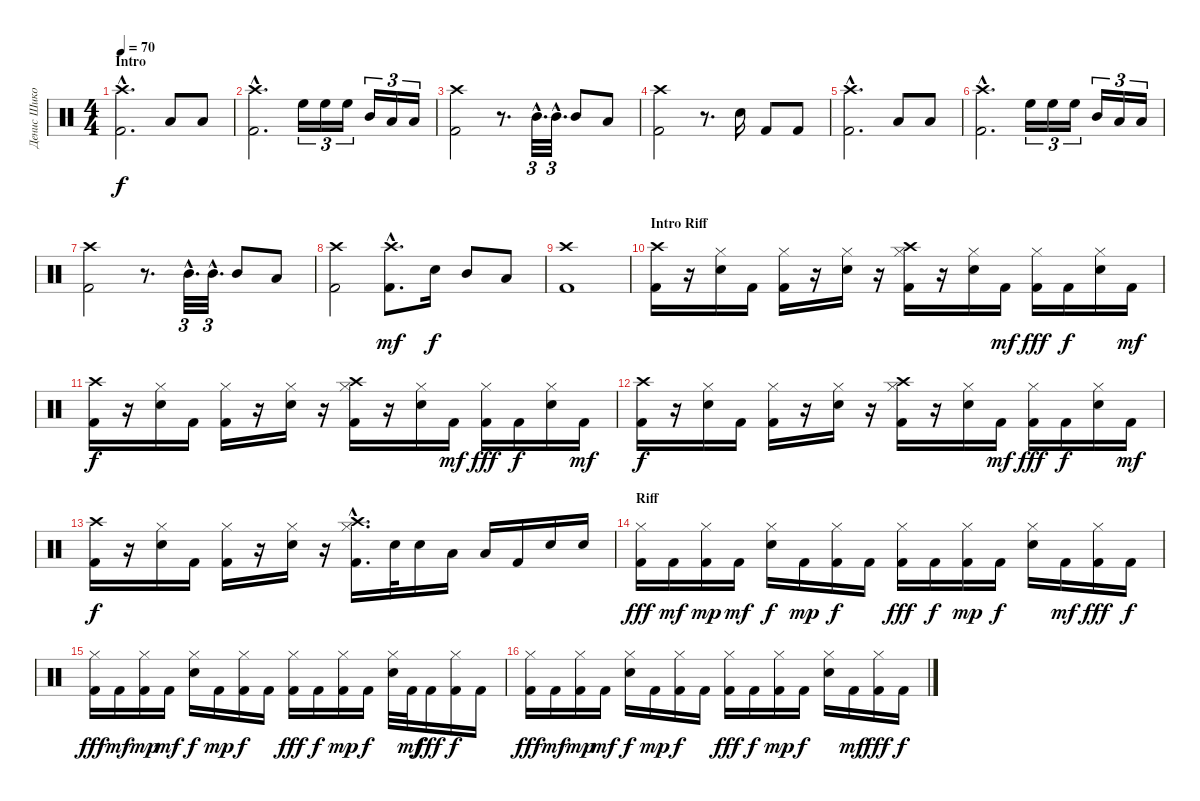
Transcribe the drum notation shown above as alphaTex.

\track ("Денис Шиков" "Денис Шико") {instrument percussion}
\staff {score}
\articulation defaults
\ts (4 4)
\section ("" "Intro")
\tempo 70
\clef neutral
\ks c
("Crash high (hit)"{hac} "Kick (hit) 2"{hac}).2{d dy f} "Low Tom (hit)".8 "Low Floor Tom (hit)".8 |
("Crash high (hit)"{hac} "Kick (hit) 2"{hac}).2{d} "High Floor Tom (hit)".16{tu (3 2)} "High Floor Tom (hit)".16{tu (3 2)} "High Floor Tom (hit)".16{tu (3 2)} "Mid Tom (hit)".16{tu (3 2)} "Low Tom (hit)".16{tu (3 2)} "Low Floor Tom (hit)".16{tu (3 2)} |
("Crash high (hit)" "Kick (hit) 2").2 r.8{d} "Mid Tom (hit)"{hac}.32{d tu (3 2)} "Mid Tom (hit)"{hac}.32{d tu (3 2)} "Mid Tom (hit)".8 "Low Tom (hit)".8 |
("Crash high (hit)" "Kick (hit) 2").2 r.8{d} "Snare (hit) 2".16 "Kick (hit) 2".8 "Kick (hit) 2".8 |
("Crash high (hit)"{hac} "Kick (hit) 2"{hac}).2{d} "Low Tom (hit)".8 "Low Floor Tom (hit)".8 |
("Crash high (hit)"{hac} "Kick (hit) 2"{hac}).2{d} "High Floor Tom (hit)".16{tu (3 2)} "High Floor Tom (hit)".16{tu (3 2)} "High Floor Tom (hit)".16{tu (3 2)} "Mid Tom (hit)".16{tu (3 2)} "Low Tom (hit)".16{tu (3 2)} "Low Floor Tom (hit)".16{tu (3 2)} |
("Crash high (hit)" "Kick (hit) 2").2 r.8{d} "Mid Tom (hit)"{hac}.32{d tu (3 2)} "Mid Tom (hit)"{hac}.32{d tu (3 2)} "Mid Tom (hit)".8 "Low Tom (hit)".8 |
("Crash high (hit)" "Kick (hit) 2").2 ("Crash high (hit)"{hac} "Kick (hit) 2"{hac}).8{d dy mf} "Electric Snare (hit)".16{dy f} "Mid Tom (hit)".8 "Low Tom (hit)".8 |
("Crash high (hit)" "Kick (hit) 2").1 |
\section ("" "Intro Riff")
("Crash high (hit)" "Kick (hit) 2").16 r.16 ("Hi-Hat (closed)" "Electric Snare (hit)").16 "Kick (hit) 2".16 ("Hi-Hat (closed)" "Kick (hit) 2").16 r.16 ("Hi-Hat (closed)" "Electric Snare (hit)").16 r.16 ("Crash high (hit)" "Hi-Hat (closed)" "Kick (hit) 2").16 r.16 ("Hi-Hat (closed)" "Electric Snare (hit)").16 "Kick (hit) 2".16{dy mf} ("Hi-Hat (closed)" "Kick (hit) 2").16{dy fff} "Kick (hit) 2".16{dy f} ("Hi-Hat (closed)" "Electric Snare (hit)").16 "Kick (hit) 2".16{dy mf} |
("Crash high (hit)" "Kick (hit) 2").16{dy f} r.16 ("Hi-Hat (closed)" "Electric Snare (hit)").16 "Kick (hit) 2".16 ("Hi-Hat (closed)" "Kick (hit) 2").16 r.16 ("Hi-Hat (closed)" "Electric Snare (hit)").16 r.16 ("Crash high (hit)" "Hi-Hat (closed)" "Kick (hit) 2").16 r.16 ("Hi-Hat (closed)" "Electric Snare (hit)").16 "Kick (hit) 2".16{dy mf} ("Hi-Hat (closed)" "Kick (hit) 2").16{dy fff} "Kick (hit) 2".16{dy f} ("Hi-Hat (closed)" "Electric Snare (hit)").16 "Kick (hit) 2".16{dy mf} |
("Crash high (hit)" "Kick (hit) 2").16{dy f} r.16 ("Hi-Hat (closed)" "Electric Snare (hit)").16 "Kick (hit) 2".16 ("Hi-Hat (closed)" "Kick (hit) 2").16 r.16 ("Hi-Hat (closed)" "Electric Snare (hit)").16 r.16 ("Crash high (hit)" "Hi-Hat (closed)" "Kick (hit) 2").16 r.16 ("Hi-Hat (closed)" "Electric Snare (hit)").16 "Kick (hit) 2".16{dy mf} ("Hi-Hat (closed)" "Kick (hit) 2").16{dy fff} "Kick (hit) 2".16{dy f} ("Hi-Hat (closed)" "Electric Snare (hit)").16 "Kick (hit) 2".16{dy mf} |
("Crash high (hit)" "Kick (hit) 2").16{dy f} r.16 ("Hi-Hat (closed)" "Electric Snare (hit)").16 "Kick (hit) 2".16 ("Hi-Hat (closed)" "Kick (hit) 2").16 r.16 ("Hi-Hat (closed)" "Electric Snare (hit)").16 r.16 ("Crash high (hit)"{hac} "Hi-Hat (closed)"{hac} "Kick (hit) 2"{hac}).16{d} "Electric Snare (hit)".32 "Electric Snare (hit)".16 "Low Tom (hit)".16 "Low Floor Tom (hit)".16 "Kick (hit) 2".16 "Electric Snare (hit)".16 "Electric Snare (hit)".16 |
\section ("" "Riff")
("Hi-Hat (closed)" "Kick (hit) 2").16{dy fff} "Kick (hit) 2".16{dy mf} ("Hi-Hat (closed)" "Kick (hit) 2").16{dy mp} "Kick (hit) 2".16{dy mf} ("Hi-Hat (closed)" "Electric Snare (hit)").16{dy f} "Kick (hit) 2".16{dy mp} ("Hi-Hat (closed)" "Kick (hit) 2").16{dy f} "Kick (hit) 2".16 ("Hi-Hat (closed)" "Kick (hit) 2").16{dy fff} "Kick (hit) 2".16{dy f} ("Hi-Hat (closed)" "Kick (hit) 2").16{dy mp} "Kick (hit) 2".16{dy f} ("Hi-Hat (closed)" "Electric Snare (hit)").16 "Kick (hit) 2".16{dy mf} ("Hi-Hat (closed)" "Kick (hit) 2").16{dy fff} "Kick (hit) 2".16{dy f} |
("Hi-Hat (closed)" "Kick (hit) 2").16{dy fff} "Kick (hit) 2".16{dy mf} ("Hi-Hat (closed)" "Kick (hit) 2").16{dy mp} "Kick (hit) 2".16{dy mf} ("Hi-Hat (closed)" "Electric Snare (hit)").16{dy f} "Kick (hit) 2".16{dy mp} ("Hi-Hat (closed)" "Kick (hit) 2").16{dy f} "Kick (hit) 2".16 ("Hi-Hat (closed)" "Kick (hit) 2").16{dy fff} "Kick (hit) 2".16{dy f} ("Hi-Hat (closed)" "Kick (hit) 2").16{dy mp} "Kick (hit) 2".16{dy f} ("Hi-Hat (closed)" "Electric Snare (hit)").32 "Kick (hit) 2".32{dy mf} "Kick (hit) 2".16{dy fff} ("Hi-Hat (closed)" "Kick (hit) 2").16{dy f} "Kick (hit) 2".16 |
("Hi-Hat (closed)" "Kick (hit) 2").16{dy fff} "Kick (hit) 2".16{dy mf} ("Hi-Hat (closed)" "Kick (hit) 2").16{dy mp} "Kick (hit) 2".16{dy mf} ("Hi-Hat (closed)" "Electric Snare (hit)").16{dy f} "Kick (hit) 2".16{dy mp} ("Hi-Hat (closed)" "Kick (hit) 2").16{dy f} "Kick (hit) 2".16 ("Hi-Hat (closed)" "Kick (hit) 2").16{dy fff} "Kick (hit) 2".16{dy f} ("Hi-Hat (closed)" "Kick (hit) 2").16{dy mp} "Kick (hit) 2".16{dy f} ("Hi-Hat (closed)" "Electric Snare (hit)").16 "Kick (hit) 2".16{dy mf} ("Hi-Hat (closed)" "Kick (hit) 2").16{dy fff} "Kick (hit) 2".16{dy f}
